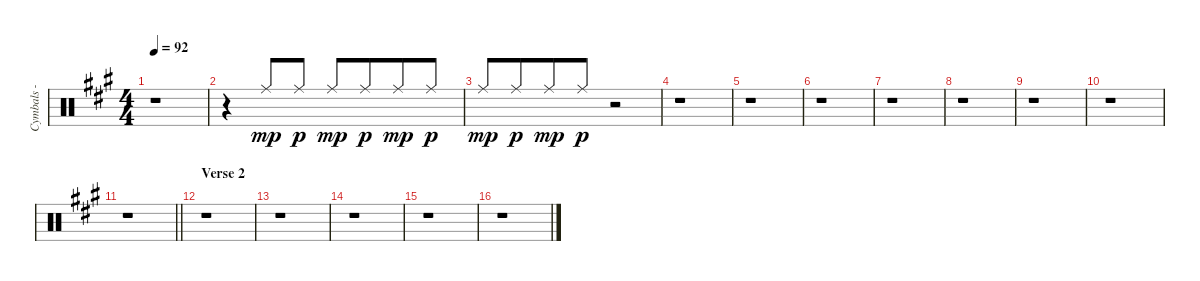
\track ("Cymbals - ride" "Cymbals - ") {instrument percussion}
\staff {score}
\articulation defaults
\ts (4 4)
\tempo 92
\clef neutral
\ks f#minor
r.1{dy mp} |
r.4 "Ride (middle)".8{beam Up} "Ride (middle)".8{dy p beam Up} "Ride (middle)".8{dy mp beam Up} "Ride (middle)".8{dy p beam Up beam merge} "Ride (middle)".8{dy mp beam Up} "Ride (middle)".8{dy p beam Up} |
"Ride (middle)".8{dy mp beam Up} "Ride (middle)".8{dy p beam Up beam merge} "Ride (middle)".8{dy mp beam Up} "Ride (middle)".8{dy p beam Up} r.2 |
r.1 |
r.1 |
r.1 |
r.1 |
r.1 |
r.1 |
r.1 |
\barLineRight lightlight
r.1 |
\section ("" "Verse 2")
r.1 |
r.1 |
r.1 |
r.1 |
r.1
